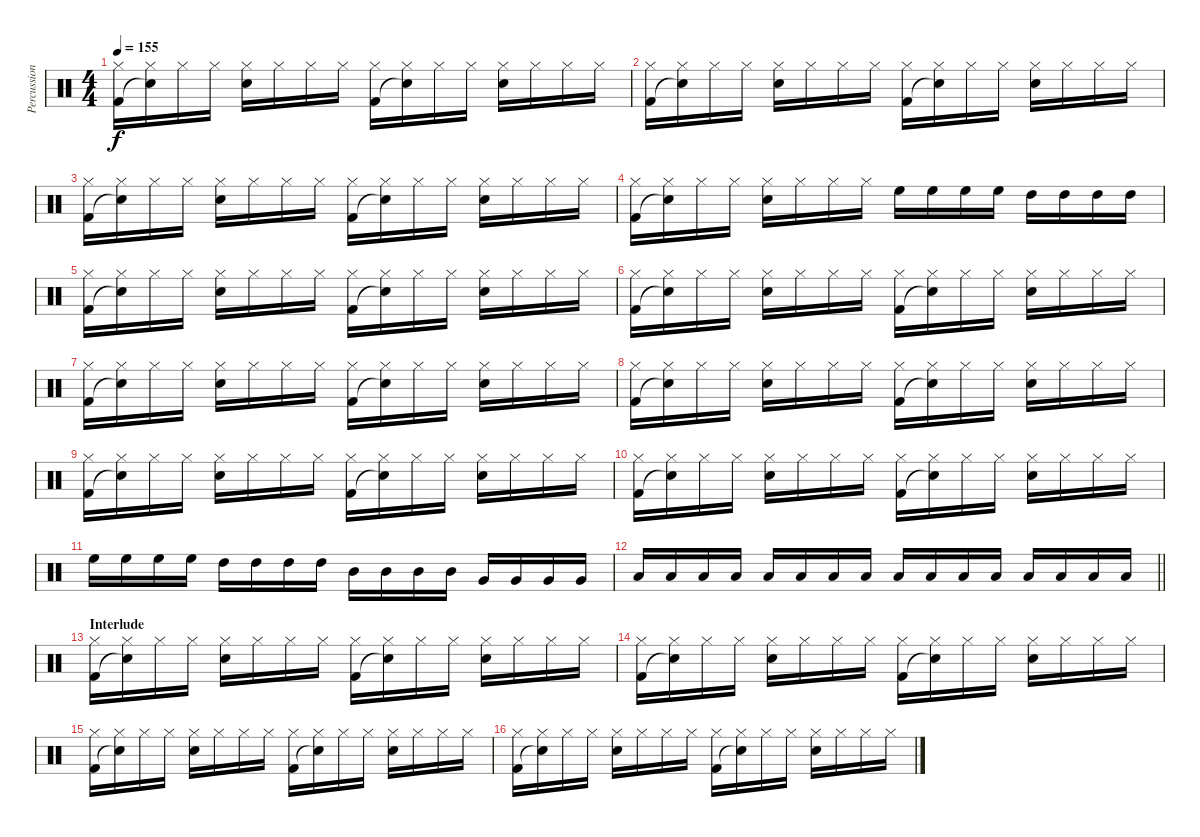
\track ("Percussion" "Percussion") {instrument percussion}
\staff {score}
\articulation defaults
\ts (4 4)
\tempo 155
\clef neutral
\ks c
("Hi-Hat (closed)" "Kick (hit) 2").16{dy f} ("Hi-Hat (closed)" "Snare (hit)"{t}).16 "Hi-Hat (closed)".16 "Hi-Hat (closed)".16 ("Hi-Hat (closed)" "Snare (hit) 2").16 "Hi-Hat (closed)".16 "Hi-Hat (closed)".16 "Hi-Hat (closed)".16 ("Hi-Hat (closed)" "Kick (hit) 2").16 ("Hi-Hat (closed)" "Snare (hit)"{t}).16 "Hi-Hat (closed)".16 "Hi-Hat (closed)".16 ("Hi-Hat (closed)" "Snare (hit) 2").16 "Hi-Hat (closed)".16 "Hi-Hat (closed)".16 "Hi-Hat (closed)".16 |
("Hi-Hat (closed)" "Kick (hit) 2").16 ("Hi-Hat (closed)" "Snare (hit)"{t}).16 "Hi-Hat (closed)".16 "Hi-Hat (closed)".16 ("Hi-Hat (closed)" "Snare (hit) 2").16 "Hi-Hat (closed)".16 "Hi-Hat (closed)".16 "Hi-Hat (closed)".16 ("Hi-Hat (closed)" "Kick (hit) 2").16 ("Hi-Hat (closed)" "Snare (hit)"{t}).16 "Hi-Hat (closed)".16 "Hi-Hat (closed)".16 ("Hi-Hat (closed)" "Snare (hit) 2").16 "Hi-Hat (closed)".16 "Hi-Hat (closed)".16 "Hi-Hat (closed)".16 |
("Hi-Hat (closed)" "Kick (hit) 2").16 ("Hi-Hat (closed)" "Snare (hit)"{t}).16 "Hi-Hat (closed)".16 "Hi-Hat (closed)".16 ("Hi-Hat (closed)" "Snare (hit) 2").16 "Hi-Hat (closed)".16 "Hi-Hat (closed)".16 "Hi-Hat (closed)".16 ("Hi-Hat (closed)" "Kick (hit) 2").16 ("Hi-Hat (closed)" "Snare (hit)"{t}).16 "Hi-Hat (closed)".16 "Hi-Hat (closed)".16 ("Hi-Hat (closed)" "Snare (hit) 2").16 "Hi-Hat (closed)".16 "Hi-Hat (closed)".16 "Hi-Hat (closed)".16 |
("Hi-Hat (closed)" "Kick (hit) 2").16 ("Hi-Hat (closed)" "Snare (hit)"{t}).16 "Hi-Hat (closed)".16 "Hi-Hat (closed)".16 ("Hi-Hat (closed)" "Snare (hit) 2").16 "Hi-Hat (closed)".16 "Hi-Hat (closed)".16 "Hi-Hat (closed)".16 "High Floor Tom (hit)".16 "High Floor Tom (hit)".16 "High Floor Tom (hit)".16 "High Floor Tom (hit)".16 "High Tom (hit)".16 "High Tom (hit)".16 "High Tom (hit)".16 "High Tom (hit)".16 |
("Hi-Hat (closed)" "Kick (hit) 2").16 ("Hi-Hat (closed)" "Snare (hit)"{t}).16 "Hi-Hat (closed)".16 "Hi-Hat (closed)".16 ("Hi-Hat (closed)" "Snare (hit) 2").16 "Hi-Hat (closed)".16 "Hi-Hat (closed)".16 "Hi-Hat (closed)".16 ("Hi-Hat (closed)" "Kick (hit) 2").16 ("Hi-Hat (closed)" "Snare (hit)"{t}).16 "Hi-Hat (closed)".16 "Hi-Hat (closed)".16 ("Hi-Hat (closed)" "Snare (hit) 2").16 "Hi-Hat (closed)".16 "Hi-Hat (closed)".16 "Hi-Hat (closed)".16 |
("Hi-Hat (closed)" "Kick (hit) 2").16 ("Hi-Hat (closed)" "Snare (hit)"{t}).16 "Hi-Hat (closed)".16 "Hi-Hat (closed)".16 ("Hi-Hat (closed)" "Snare (hit) 2").16 "Hi-Hat (closed)".16 "Hi-Hat (closed)".16 "Hi-Hat (closed)".16 ("Hi-Hat (closed)" "Kick (hit) 2").16 ("Hi-Hat (closed)" "Snare (hit)"{t}).16 "Hi-Hat (closed)".16 "Hi-Hat (closed)".16 ("Hi-Hat (closed)" "Snare (hit) 2").16 "Hi-Hat (closed)".16 "Hi-Hat (closed)".16 "Hi-Hat (closed)".16 |
("Hi-Hat (closed)" "Kick (hit) 2").16 ("Hi-Hat (closed)" "Snare (hit)"{t}).16 "Hi-Hat (closed)".16 "Hi-Hat (closed)".16 ("Hi-Hat (closed)" "Snare (hit) 2").16 "Hi-Hat (closed)".16 "Hi-Hat (closed)".16 "Hi-Hat (closed)".16 ("Hi-Hat (closed)" "Kick (hit) 2").16 ("Hi-Hat (closed)" "Snare (hit)"{t}).16 "Hi-Hat (closed)".16 "Hi-Hat (closed)".16 ("Hi-Hat (closed)" "Snare (hit) 2").16 "Hi-Hat (closed)".16 "Hi-Hat (closed)".16 "Hi-Hat (closed)".16 |
("Hi-Hat (closed)" "Kick (hit) 2").16 ("Hi-Hat (closed)" "Snare (hit)"{t}).16 "Hi-Hat (closed)".16 "Hi-Hat (closed)".16 ("Hi-Hat (closed)" "Snare (hit) 2").16 "Hi-Hat (closed)".16 "Hi-Hat (closed)".16 "Hi-Hat (closed)".16 ("Hi-Hat (closed)" "Kick (hit) 2").16 ("Hi-Hat (closed)" "Snare (hit)"{t}).16 "Hi-Hat (closed)".16 "Hi-Hat (closed)".16 ("Hi-Hat (closed)" "Snare (hit) 2").16 "Hi-Hat (closed)".16 "Hi-Hat (closed)".16 "Hi-Hat (closed)".16 |
("Hi-Hat (closed)" "Kick (hit) 2").16 ("Hi-Hat (closed)" "Snare (hit)"{t}).16 "Hi-Hat (closed)".16 "Hi-Hat (closed)".16 ("Hi-Hat (closed)" "Snare (hit) 2").16 "Hi-Hat (closed)".16 "Hi-Hat (closed)".16 "Hi-Hat (closed)".16 ("Hi-Hat (closed)" "Kick (hit) 2").16 ("Hi-Hat (closed)" "Snare (hit)"{t}).16 "Hi-Hat (closed)".16 "Hi-Hat (closed)".16 ("Hi-Hat (closed)" "Snare (hit) 2").16 "Hi-Hat (closed)".16 "Hi-Hat (closed)".16 "Hi-Hat (closed)".16 |
("Hi-Hat (closed)" "Kick (hit) 2").16 ("Hi-Hat (closed)" "Snare (hit)"{t}).16 "Hi-Hat (closed)".16 "Hi-Hat (closed)".16 ("Hi-Hat (closed)" "Snare (hit) 2").16 "Hi-Hat (closed)".16 "Hi-Hat (closed)".16 "Hi-Hat (closed)".16 ("Hi-Hat (closed)" "Kick (hit) 2").16 ("Hi-Hat (closed)" "Snare (hit)"{t}).16 "Hi-Hat (closed)".16 "Hi-Hat (closed)".16 ("Hi-Hat (closed)" "Snare (hit) 2").16 "Hi-Hat (closed)".16 "Hi-Hat (closed)".16 "Hi-Hat (closed)".16 |
"High Floor Tom (hit)".16 "High Floor Tom (hit)".16 "High Floor Tom (hit)".16 "High Floor Tom (hit)".16 "High Tom (hit)".16 "High Tom (hit)".16 "High Tom (hit)".16 "High Tom (hit)".16 "Mid Tom (hit)".16 "Mid Tom (hit)".16 "Mid Tom (hit)".16 "Mid Tom (hit)".16 "Very Low Tom (hit)".16 "Very Low Tom (hit)".16 "Very Low Tom (hit)".16 "Very Low Tom (hit)".16 |
\barLineRight lightlight "Low Floor Tom (hit)".16 "Low Floor Tom (hit)".16 "Low Floor Tom (hit)".16 "Low Floor Tom (hit)".16 "Low Floor Tom (hit)".16 "Low Floor Tom (hit)".16 "Low Floor Tom (hit)".16 "Low Floor Tom (hit)".16 "Low Floor Tom (hit)".16 "Low Floor Tom (hit)".16 "Low Floor Tom (hit)".16 "Low Floor Tom (hit)".16 "Low Floor Tom (hit)".16 "Low Floor Tom (hit)".16 "Low Floor Tom (hit)".16 "Low Floor Tom (hit)".16
|
\section ("" "Interlude")
("Hi-Hat (closed)" "Kick (hit) 2").16 ("Hi-Hat (closed)" "Snare (hit)"{t}).16 "Hi-Hat (closed)".16 "Hi-Hat (closed)".16 ("Hi-Hat (closed)" "Snare (hit) 2").16 "Hi-Hat (closed)".16 "Hi-Hat (closed)".16 "Hi-Hat (closed)".16 ("Hi-Hat (closed)" "Kick (hit) 2").16 ("Hi-Hat (closed)" "Snare (hit)"{t}).16 "Hi-Hat (closed)".16 "Hi-Hat (closed)".16 ("Hi-Hat (closed)" "Snare (hit) 2").16 "Hi-Hat (closed)".16 "Hi-Hat (closed)".16 "Hi-Hat (closed)".16 |
("Hi-Hat (closed)" "Kick (hit) 2").16 ("Hi-Hat (closed)" "Snare (hit)"{t}).16 "Hi-Hat (closed)".16 "Hi-Hat (closed)".16 ("Hi-Hat (closed)" "Snare (hit) 2").16 "Hi-Hat (closed)".16 "Hi-Hat (closed)".16 "Hi-Hat (closed)".16 ("Hi-Hat (closed)" "Kick (hit) 2").16 ("Hi-Hat (closed)" "Snare (hit)"{t}).16 "Hi-Hat (closed)".16 "Hi-Hat (closed)".16 ("Hi-Hat (closed)" "Snare (hit) 2").16 "Hi-Hat (closed)".16 "Hi-Hat (closed)".16 "Hi-Hat (closed)".16 |
("Hi-Hat (closed)" "Kick (hit) 2").16 ("Hi-Hat (closed)" "Snare (hit)"{t}).16 "Hi-Hat (closed)".16 "Hi-Hat (closed)".16 ("Hi-Hat (closed)" "Snare (hit) 2").16 "Hi-Hat (closed)".16 "Hi-Hat (closed)".16 "Hi-Hat (closed)".16 ("Hi-Hat (closed)" "Kick (hit) 2").16 ("Hi-Hat (closed)" "Snare (hit)"{t}).16 "Hi-Hat (closed)".16 "Hi-Hat (closed)".16 ("Hi-Hat (closed)" "Snare (hit) 2").16 "Hi-Hat (closed)".16 "Hi-Hat (closed)".16 "Hi-Hat (closed)".16 |
("Hi-Hat (closed)" "Kick (hit) 2").16 ("Hi-Hat (closed)" "Snare (hit)"{t}).16 "Hi-Hat (closed)".16 "Hi-Hat (closed)".16 ("Hi-Hat (closed)" "Snare (hit) 2").16 "Hi-Hat (closed)".16 "Hi-Hat (closed)".16 "Hi-Hat (closed)".16 ("Hi-Hat (closed)" "Kick (hit) 2").16 ("Hi-Hat (closed)" "Snare (hit)"{t}).16 "Hi-Hat (closed)".16 "Hi-Hat (closed)".16 ("Hi-Hat (closed)" "Snare (hit) 2").16 "Hi-Hat (closed)".16 "Hi-Hat (closed)".16 "Hi-Hat (closed)".16
